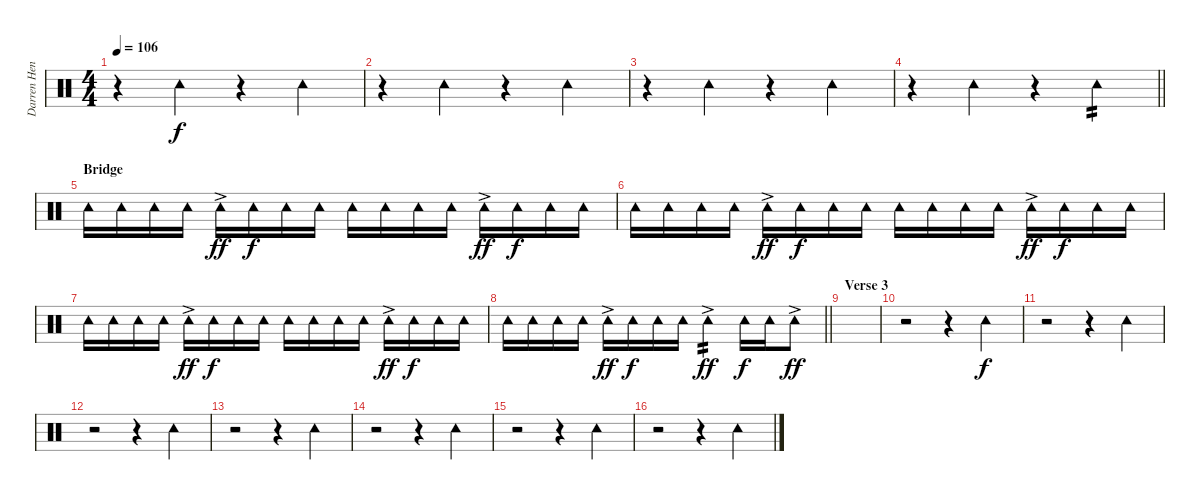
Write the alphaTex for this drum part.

\track ("Darren Henley [Percussion]" "Darren Hen") {instrument percussion}
\staff {score}
\articulation defaults
\ts (4 4)
\tempo 106
\clef neutral
\ks c
r.4{dy f} "Tambourine (hit)".4 r.4 "Tambourine (hit)".4 |
r.4 "Tambourine (hit)".4 r.4 "Tambourine (hit)".4 |
r.4 "Tambourine (hit)".4 r.4 "Tambourine (hit)".4 |
\barLineRight lightlight
r.4 "Tambourine (hit)".4 r.4 "Tambourine (hit)".4{tp 2} |
\section ("" "Bridge")
"Tambourine (hit)".16 "Tambourine (hit)".16 "Tambourine (hit)".16 "Tambourine (hit)".16 "Tambourine (hit)"{ac}.16{dy ff} "Tambourine (hit)".16{dy f} "Tambourine (hit)".16 "Tambourine (hit)".16 "Tambourine (hit)".16 "Tambourine (hit)".16 "Tambourine (hit)".16 "Tambourine (hit)".16 "Tambourine (hit)"{ac}.16{dy ff} "Tambourine (hit)".16{dy f} "Tambourine (hit)".16 "Tambourine (hit)".16 |
"Tambourine (hit)".16 "Tambourine (hit)".16 "Tambourine (hit)".16 "Tambourine (hit)".16 "Tambourine (hit)"{ac}.16{dy ff} "Tambourine (hit)".16{dy f} "Tambourine (hit)".16 "Tambourine (hit)".16 "Tambourine (hit)".16 "Tambourine (hit)".16 "Tambourine (hit)".16 "Tambourine (hit)".16 "Tambourine (hit)"{ac}.16{dy ff} "Tambourine (hit)".16{dy f} "Tambourine (hit)".16 "Tambourine (hit)".16 |
"Tambourine (hit)".16 "Tambourine (hit)".16 "Tambourine (hit)".16 "Tambourine (hit)".16 "Tambourine (hit)"{ac}.16{dy ff} "Tambourine (hit)".16{dy f} "Tambourine (hit)".16 "Tambourine (hit)".16 "Tambourine (hit)".16 "Tambourine (hit)".16 "Tambourine (hit)".16 "Tambourine (hit)".16 "Tambourine (hit)"{ac}.16{dy ff} "Tambourine (hit)".16{dy f} "Tambourine (hit)".16 "Tambourine (hit)".16 |
\barLineRight lightlight "Tambourine (hit)".16 "Tambourine (hit)".16 "Tambourine (hit)".16 "Tambourine (hit)".16 "Tambourine (hit)"{ac}.16{dy ff} "Tambourine (hit)".16{dy f} "Tambourine (hit)".16 "Tambourine (hit)".16 "Tambourine (hit)"{ac}.4{tp 2 dy ff} "Tambourine (hit)".16{dy f} "Tambourine (hit)".16 "Tambourine (hit)"{ac}.8{dy ff}
|
\section ("" "Verse 3")
|
r.2 r.4 "Tambourine (hit)".4{dy f} |
r.2 r.4 "Tambourine (hit)".4 |
r.2 r.4 "Tambourine (hit)".4 |
r.2 r.4 "Tambourine (hit)".4 |
r.2 r.4 "Tambourine (hit)".4 |
r.2 r.4 "Tambourine (hit)".4 |
r.2 r.4 "Tambourine (hit)".4
